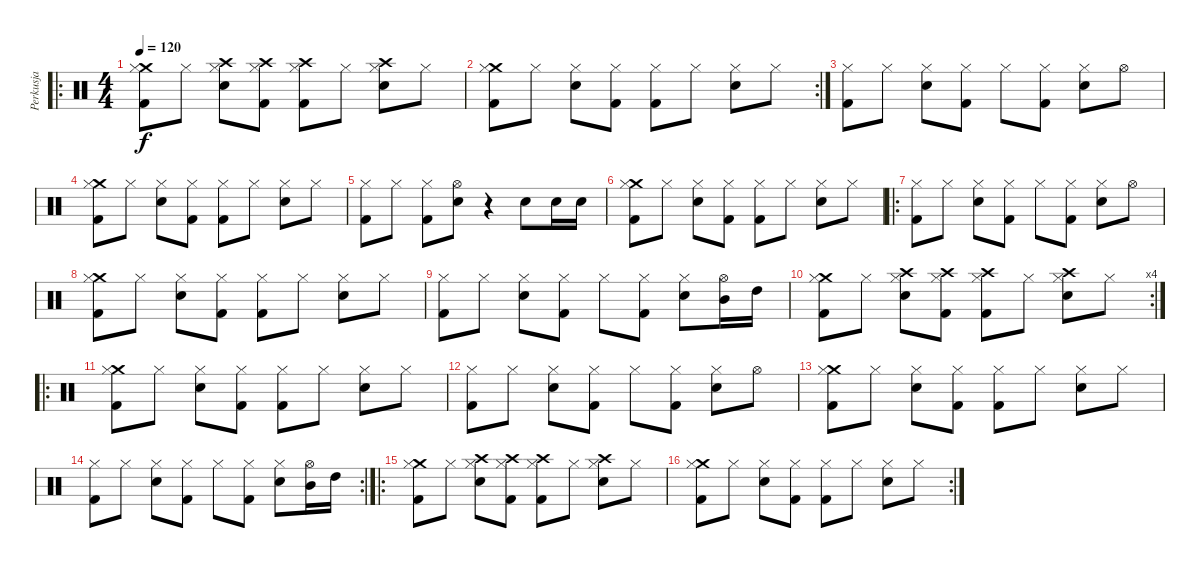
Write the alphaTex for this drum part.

\track ("Perkusja" "Perkusja") {instrument percussion}
\staff {score}
\articulation defaults
\ro
\ts (4 4)
\tempo 120
\clef neutral
\ks c
("Crash medium (hit)" "Hi-Hat (closed)" "Kick (hit) 2").8{dy f} "Hi-Hat (closed)".8 ("Crash high (hit)" "Hi-Hat (closed)" "Electric Snare (hit)").8 ("Crash high (hit)" "Hi-Hat (closed)" "Kick (hit) 2").8 ("Crash high (hit)" "Hi-Hat (closed)" "Kick (hit) 2").8 "Hi-Hat (closed)".8 ("Crash high (hit)" "Hi-Hat (closed)" "Electric Snare (hit)").8 "Hi-Hat (closed)".8 |
\rc 2
("Crash medium (hit)" "Hi-Hat (closed)" "Kick (hit) 2").8 "Hi-Hat (closed)".8 ("Hi-Hat (closed)" "Electric Snare (hit)").8 ("Hi-Hat (closed)" "Kick (hit) 2").8 ("Hi-Hat (closed)" "Kick (hit) 2").8 "Hi-Hat (closed)".8 ("Hi-Hat (closed)" "Electric Snare (hit)").8 "Hi-Hat (closed)".8 |
("Hi-Hat (closed)" "Kick (hit) 2").8 "Hi-Hat (closed)".8 ("Hi-Hat (closed)" "Electric Snare (hit)").8 ("Hi-Hat (closed)" "Kick (hit) 2").8 "Hi-Hat (closed)".8 ("Hi-Hat (closed)" "Kick (hit) 2").8 ("Hi-Hat (closed)" "Electric Snare (hit)").8 "Hi-Hat (open)".8 |
("Crash medium (hit)" "Hi-Hat (closed)" "Kick (hit) 2").8 "Hi-Hat (closed)".8 ("Hi-Hat (closed)" "Electric Snare (hit)").8 ("Hi-Hat (closed)" "Kick (hit) 2").8 ("Hi-Hat (closed)" "Kick (hit) 2").8 "Hi-Hat (closed)".8 ("Hi-Hat (closed)" "Electric Snare (hit)").8 "Hi-Hat (closed)".8 |
("Hi-Hat (closed)" "Kick (hit) 2").8 "Hi-Hat (closed)".8 ("Hi-Hat (closed)" "Kick (hit) 2").8 ("Hi-Hat (open)" "Electric Snare (hit)").8 r.4 "Electric Snare (hit)".8 "Electric Snare (hit)".16 "Electric Snare (hit)".16 |
("Crash medium (hit)" "Hi-Hat (closed)" "Kick (hit) 2").8 "Hi-Hat (closed)".8 ("Hi-Hat (closed)" "Electric Snare (hit)").8 ("Hi-Hat (closed)" "Kick (hit) 2").8 ("Hi-Hat (closed)" "Kick (hit) 2").8 "Hi-Hat (closed)".8 ("Hi-Hat (closed)" "Electric Snare (hit)").8 "Hi-Hat (closed)".8 |
\ro
("Hi-Hat (closed)" "Kick (hit) 2").8 "Hi-Hat (closed)".8 ("Hi-Hat (closed)" "Electric Snare (hit)").8 ("Hi-Hat (closed)" "Kick (hit) 2").8 "Hi-Hat (closed)".8 ("Hi-Hat (closed)" "Kick (hit) 2").8 ("Hi-Hat (closed)" "Electric Snare (hit)").8 "Hi-Hat (open)".8 |
("Crash medium (hit)" "Hi-Hat (closed)" "Kick (hit) 2").8 "Hi-Hat (closed)".8 ("Hi-Hat (closed)" "Electric Snare (hit)").8 ("Hi-Hat (closed)" "Kick (hit) 2").8 ("Hi-Hat (closed)" "Kick (hit) 2").8 "Hi-Hat (closed)".8 ("Hi-Hat (closed)" "Electric Snare (hit)").8 "Hi-Hat (closed)".8 |
("Hi-Hat (closed)" "Kick (hit) 2").8 "Hi-Hat (closed)".8 ("Hi-Hat (closed)" "Electric Snare (hit)").8 ("Hi-Hat (closed)" "Kick (hit) 2").8 "Hi-Hat (closed)".8 ("Hi-Hat (closed)" "Kick (hit) 2").8 ("Hi-Hat (closed)" "Electric Snare (hit)").8 ("Hi-Hat (open)" "Mid Tom (hit)").16 "High Tom (hit)".16 |
\rc 4
("Crash medium (hit)" "Hi-Hat (closed)" "Kick (hit) 2").8 "Hi-Hat (closed)".8 ("Crash high (hit)" "Hi-Hat (closed)" "Electric Snare (hit)").8 ("Crash high (hit)" "Hi-Hat (closed)" "Kick (hit) 2").8 ("Crash high (hit)" "Hi-Hat (closed)" "Kick (hit) 2").8 "Hi-Hat (closed)".8 ("Crash high (hit)" "Hi-Hat (closed)" "Electric Snare (hit)").8 "Hi-Hat (closed)".8 |
\ro
("Crash medium (hit)" "Hi-Hat (closed)" "Kick (hit) 2").8 "Hi-Hat (closed)".8 ("Hi-Hat (closed)" "Electric Snare (hit)").8 ("Hi-Hat (closed)" "Kick (hit) 2").8 ("Hi-Hat (closed)" "Kick (hit) 2").8 "Hi-Hat (closed)".8 ("Hi-Hat (closed)" "Electric Snare (hit)").8 "Hi-Hat (closed)".8 |
("Hi-Hat (closed)" "Kick (hit) 2").8 "Hi-Hat (closed)".8 ("Hi-Hat (closed)" "Electric Snare (hit)").8 ("Hi-Hat (closed)" "Kick (hit) 2").8 "Hi-Hat (closed)".8 ("Hi-Hat (closed)" "Kick (hit) 2").8 ("Hi-Hat (closed)" "Electric Snare (hit)").8 "Hi-Hat (open)".8 |
("Crash medium (hit)" "Hi-Hat (closed)" "Kick (hit) 2").8 "Hi-Hat (closed)".8 ("Hi-Hat (closed)" "Electric Snare (hit)").8 ("Hi-Hat (closed)" "Kick (hit) 2").8 ("Hi-Hat (closed)" "Kick (hit) 2").8 "Hi-Hat (closed)".8 ("Hi-Hat (closed)" "Electric Snare (hit)").8 "Hi-Hat (closed)".8 |
\rc 2
("Hi-Hat (closed)" "Kick (hit) 2").8 "Hi-Hat (closed)".8 ("Hi-Hat (closed)" "Electric Snare (hit)").8 ("Hi-Hat (closed)" "Kick (hit) 2").8 "Hi-Hat (closed)".8 ("Hi-Hat (closed)" "Kick (hit) 2").8 ("Hi-Hat (closed)" "Electric Snare (hit)").8 ("Hi-Hat (open)" "Mid Tom (hit)").16 "High Tom (hit)".16 |
\ro
("Crash medium (hit)" "Hi-Hat (closed)" "Kick (hit) 2").8 "Hi-Hat (closed)".8 ("Crash high (hit)" "Hi-Hat (closed)" "Electric Snare (hit)").8 ("Crash high (hit)" "Hi-Hat (closed)" "Kick (hit) 2").8 ("Crash high (hit)" "Hi-Hat (closed)" "Kick (hit) 2").8 "Hi-Hat (closed)".8 ("Crash high (hit)" "Hi-Hat (closed)" "Electric Snare (hit)").8 "Hi-Hat (closed)".8 |
\rc 2
("Crash medium (hit)" "Hi-Hat (closed)" "Kick (hit) 2").8 "Hi-Hat (closed)".8 ("Hi-Hat (closed)" "Electric Snare (hit)").8 ("Hi-Hat (closed)" "Kick (hit) 2").8 ("Hi-Hat (closed)" "Kick (hit) 2").8 "Hi-Hat (closed)".8 ("Hi-Hat (closed)" "Electric Snare (hit)").8 "Hi-Hat (closed)".8
